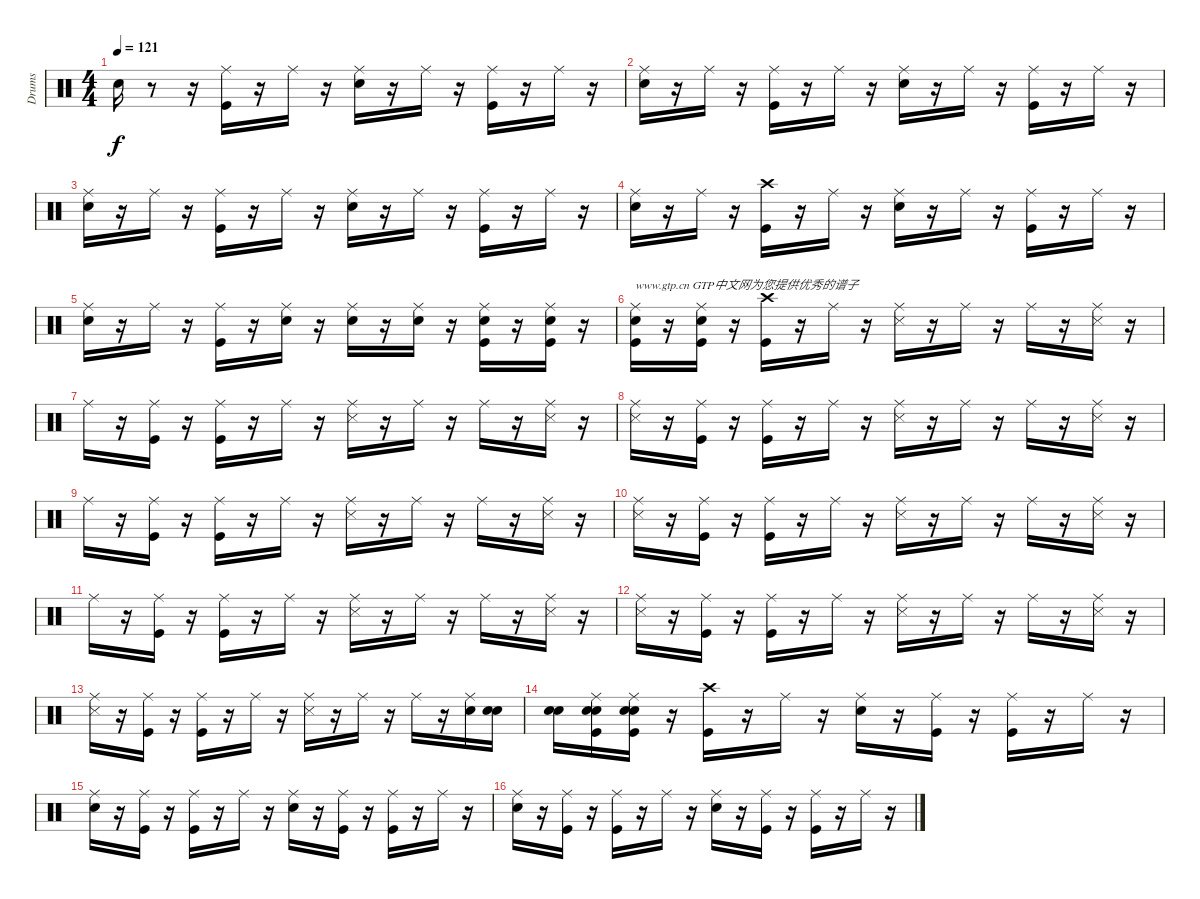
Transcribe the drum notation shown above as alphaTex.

\track ("Drums" "Drums") {instrument percussion}
\staff {score}
\articulation defaults
\ts (4 4)
\tempo 121
\clef neutral
\ks c "Snare (hit) 2".16{dy f}
r.8 r.16 ("Kick (hit)" "Ride (middle)").16 r.16 "Ride (middle)".16 r.16 ("Snare (hit) 2" "Ride (middle)").16 r.16 "Ride (middle)".16 r.16 ("Kick (hit)" "Ride (middle)").16 r.16 "Ride (middle)".16 r.16 |
("Ride (middle)" "Snare (hit) 2").16 r.16 "Ride (middle)".16 r.16 ("Ride (middle)" "Kick (hit)").16 r.16 "Ride (middle)".16 r.16 ("Snare (hit) 2" "Ride (middle)").16 r.16 "Ride (middle)".16 r.16 ("Kick (hit)" "Ride (middle)").16 r.16 "Ride (middle)".16 r.16 |
("Snare (hit) 2" "Ride (middle)").16 r.16 "Ride (middle)".16 r.16 ("Ride (middle)" "Kick (hit)").16 r.16 "Ride (middle)".16 r.16 ("Snare (hit) 2" "Ride (middle)").16 r.16 "Ride (middle)".16 r.16 ("Kick (hit)" "Ride (middle)").16 r.16 "Ride (middle)".16 r.16 |
("Snare (hit) 2" "Ride (middle)").16 r.16 "Ride (middle)".16 r.16 ("Crash high (hit)" "Kick (hit)").16 r.16 "Ride (middle)".16 r.16 ("Snare (hit) 2" "Ride (middle)").16 r.16 "Ride (middle)".16 r.16 ("Ride (middle)" "Kick (hit)").16 r.16 "Ride (middle)".16 r.16 |
("Snare (hit) 2" "Ride (middle)").16 r.16 "Ride (middle)".16 r.16 ("Ride (middle)" "Kick (hit)").16 r.16 ("Snare (hit) 2" "Ride (middle)").16 r.16 ("Snare (hit) 2" "Ride (middle)").16 r.16 ("Snare (hit) 2" "Ride (middle)").16 r.16 ("Kick (hit)" "Snare (hit) 2" "Ride (middle)").16 r.16 ("Kick (hit)" "Ride (middle)" "Snare (hit) 2").16 r.16 |
("Kick (hit)" "Ride (middle)" "Snare (hit) 2").16{txt "www.gtp.cn GTP中文网为您提供优秀的谱子"} r.16 ("Kick (hit)" "Ride (middle)" "Snare (hit) 2").16 r.16 ("Crash high (hit)" "Kick (hit)").16 r.16 "Ride (middle)".16 r.16 ("Ride (middle)" "Snare (side stick) 3").16 r.16 "Ride (middle)".16 r.16 "Ride (middle)".16 r.16 ("Ride (middle)" "Snare (side stick) 3").16 r.16 |
"Ride (middle)".16 r.16 ("Kick (hit)" "Ride (middle)").16 r.16 ("Ride (middle)" "Kick (hit)").16 r.16 "Ride (middle)".16 r.16 ("Ride (middle)" "Snare (side stick) 3").16 r.16 "Ride (middle)".16 r.16 "Ride (middle)".16 r.16 ("Ride (middle)" "Snare (side stick) 3").16 r.16 |
("Ride (middle)" "Snare (side stick) 3").16 r.16 ("Ride (middle)" "Kick (hit)").16 r.16 ("Ride (middle)" "Kick (hit)").16 r.16 "Ride (middle)".16 r.16 ("Ride (middle)" "Snare (side stick) 3").16 r.16 "Ride (middle)".16 r.16 "Ride (middle)".16 r.16 ("Ride (middle)" "Snare (side stick) 3").16 r.16 |
"Ride (middle)".16 r.16 ("Kick (hit)" "Ride (middle)").16 r.16 ("Ride (middle)" "Kick (hit)").16 r.16 "Ride (middle)".16 r.16 ("Ride (middle)" "Snare (side stick) 3").16 r.16 "Ride (middle)".16 r.16 "Ride (middle)".16 r.16 ("Ride (middle)" "Snare (side stick) 3").16 r.16 |
("Ride (middle)" "Snare (side stick) 3").16 r.16 ("Kick (hit)" "Ride (middle)").16 r.16 ("Ride (middle)" "Kick (hit)").16 r.16 "Ride (middle)".16 r.16 ("Ride (middle)" "Snare (side stick) 3").16 r.16 "Ride (middle)".16 r.16 "Ride (middle)".16 r.16 ("Ride (middle)" "Snare (side stick) 3").16 r.16 |
"Ride (middle)".16 r.16 ("Kick (hit)" "Ride (middle)").16 r.16 ("Ride (middle)" "Kick (hit)").16 r.16 "Ride (middle)".16 r.16 ("Ride (middle)" "Snare (side stick) 3").16 r.16 "Ride (middle)".16 r.16 "Ride (middle)".16 r.16 ("Ride (middle)" "Snare (side stick) 3").16 r.16 |
("Ride (middle)" "Snare (side stick) 3").16 r.16 ("Kick (hit)" "Ride (middle)").16 r.16 ("Ride (middle)" "Kick (hit)").16 r.16 "Ride (middle)".16 r.16 ("Ride (middle)" "Snare (side stick) 3").16 r.16 "Ride (middle)".16 r.16 "Ride (middle)".16 r.16 ("Ride (middle)" "Snare (side stick) 3").16 r.16 |
("Ride (middle)" "Snare (side stick) 3").16 r.16 ("Kick (hit)" "Ride (middle)").16 r.16 ("Ride (middle)" "Kick (hit)").16 r.16 "Ride (middle)".16 r.16 ("Ride (middle)" "Snare (side stick) 3").16 r.16 "Ride (middle)".16 r.16 "Ride (middle)".16 r.16 ("Snare (hit) 2" "Ride (middle)").16 ("Snare (hit)" "Snare (hit) 2").16 |
("Snare (hit)" "Snare (hit) 2").16 ("Snare (hit)" "Snare (hit) 2" "Kick (hit)" "Ride (middle)").16 ("Snare (hit)" "Kick (hit)" "Snare (hit) 2" "Ride (middle)").16 r.16 ("Crash high (hit)" "Kick (hit)").16 r.16 "Ride (middle)".16 r.16 ("Snare (hit) 2" "Ride (middle)").16 r.16 ("Kick (hit)" "Ride (middle)").16 r.16 ("Kick (hit)" "Ride (middle)").16 r.16 "Ride (middle)".16 r.16 |
("Snare (hit) 2" "Ride (middle)").16 r.16 ("Ride (middle)" "Kick (hit)").16 r.16 ("Ride (middle)" "Kick (hit)").16 r.16 "Ride (middle)".16 r.16 ("Snare (hit) 2" "Ride (middle)").16 r.16 ("Kick (hit)" "Ride (middle)").16 r.16 ("Kick (hit)" "Ride (middle)").16 r.16 "Ride (middle)".16 r.16 |
("Snare (hit) 2" "Ride (middle)").16 r.16 ("Kick (hit)" "Ride (middle)").16 r.16 ("Ride (middle)" "Kick (hit)").16 r.16 "Ride (middle)".16 r.16 ("Snare (hit) 2" "Ride (middle)").16 r.16 ("Kick (hit)" "Ride (middle)").16 r.16 ("Kick (hit)" "Ride (middle)").16 r.16 "Ride (middle)".16 r.16
